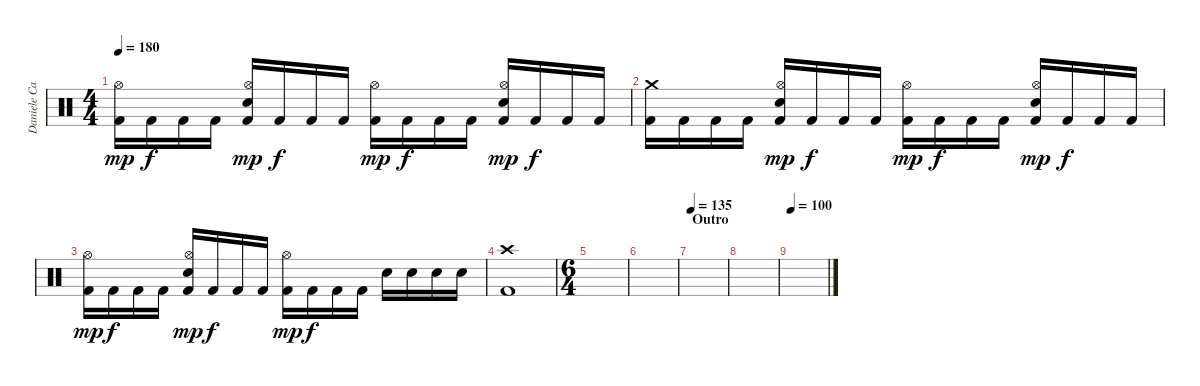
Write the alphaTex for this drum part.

\track ("Daniele Carbonera" "Daniele Ca") {instrument percussion}
\staff {score}
\articulation defaults
\ts (4 4)
\tempo 180
\clef neutral
\ks c
("Kick (hit) 2" "Hi-Hat (open)").16{dy mp} "Kick (hit) 2".16{dy f} "Kick (hit) 2".16 "Kick (hit) 2".16 ("Kick (hit) 2" "Hi-Hat (open)" "Snare (hit) 2").16{dy mp} "Kick (hit) 2".16{dy f} "Kick (hit) 2".16 "Kick (hit) 2".16 ("Kick (hit) 2" "Hi-Hat (open)").16{dy mp} "Kick (hit) 2".16{dy f} "Kick (hit) 2".16 "Kick (hit) 2".16 ("Kick (hit) 2" "Hi-Hat (open)" "Snare (hit) 2").16{dy mp} "Kick (hit) 2".16{dy f} "Kick (hit) 2".16 "Kick (hit) 2".16 |
("Kick (hit) 2" "Crash medium (hit)").16 "Kick (hit) 2".16 "Kick (hit) 2".16 "Kick (hit) 2".16 ("Kick (hit) 2" "Hi-Hat (open)" "Snare (hit) 2").16{dy mp} "Kick (hit) 2".16{dy f} "Kick (hit) 2".16 "Kick (hit) 2".16 ("Kick (hit) 2" "Hi-Hat (open)").16{dy mp} "Kick (hit) 2".16{dy f} "Kick (hit) 2".16 "Kick (hit) 2".16 ("Kick (hit) 2" "Hi-Hat (open)" "Snare (hit) 2").16{dy mp} "Kick (hit) 2".16{dy f} "Kick (hit) 2".16 "Kick (hit) 2".16 |
("Kick (hit) 2" "Hi-Hat (open)").16{dy mp} "Kick (hit) 2".16{dy f} "Kick (hit) 2".16 "Kick (hit) 2".16 ("Kick (hit) 2" "Hi-Hat (open)" "Snare (hit) 2").16{dy mp} "Kick (hit) 2".16{dy f} "Kick (hit) 2".16 "Kick (hit) 2".16 ("Kick (hit) 2" "Hi-Hat (open)").16{dy mp} "Kick (hit) 2".16{dy f} "Kick (hit) 2".16 "Kick (hit) 2".16 "Snare (hit) 2".16 "Snare (hit) 2".16 "Snare (hit) 2".16 "Snare (hit) 2".16 |
("Kick (hit) 2" "Crash high (hit)").1 |
\ts (6 4)
|
|
\section ("" "Outro")
\tempo 135
|
|
\tempo 100
